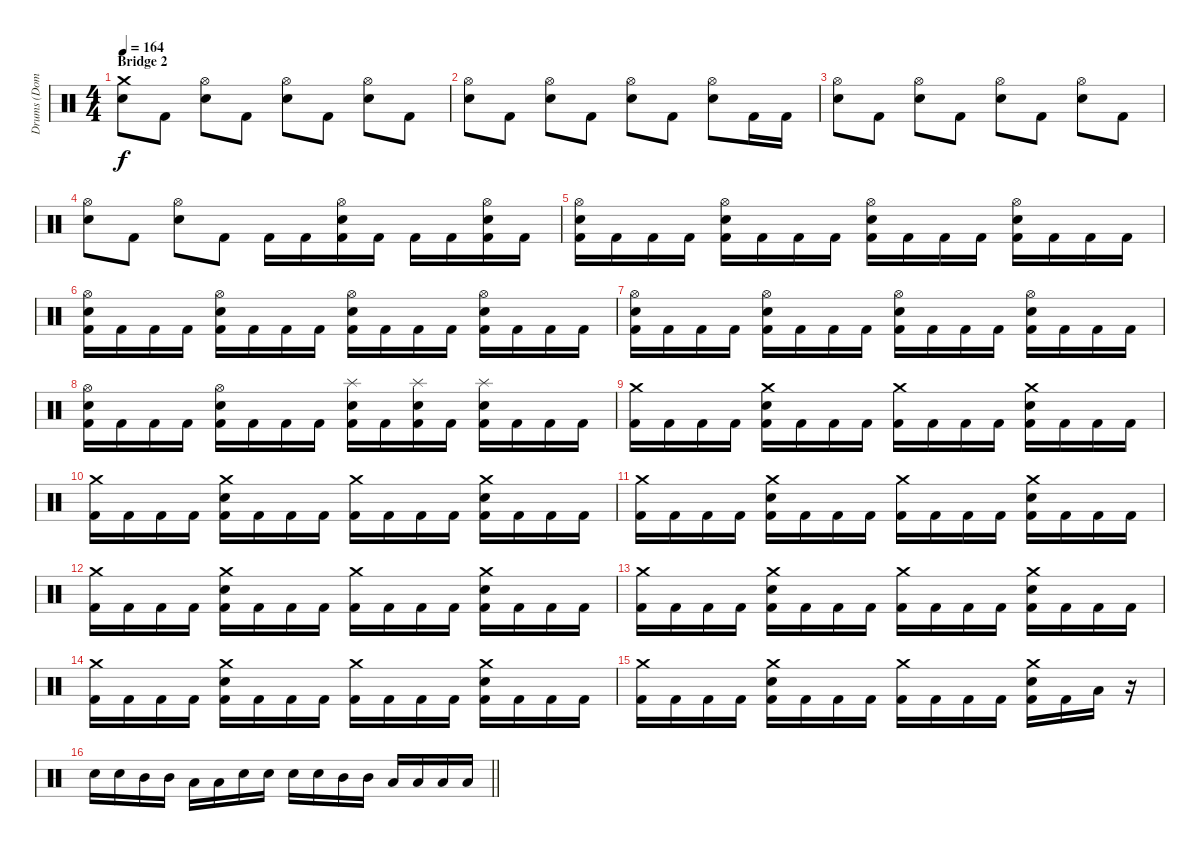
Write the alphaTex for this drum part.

\track ("Drums (Dominik)" "Drums (Dom") {instrument percussion}
\staff {score}
\articulation defaults
\ts (4 4)
\section ("" "Bridge 2")
\tempo 164
\clef neutral
\ks c
("Crash medium (hit)" "Electric Snare (hit)").8{dy f} "Kick (hit) 2".8 ("Hi-Hat (open)" "Electric Snare (hit)").8 "Kick (hit) 2".8 ("Hi-Hat (open)" "Electric Snare (hit)").8 "Kick (hit) 2".8 ("Hi-Hat (open)" "Electric Snare (hit)").8 "Kick (hit) 2".8 |
("Hi-Hat (open)" "Electric Snare (hit)").8 "Kick (hit) 2".8 ("Hi-Hat (open)" "Electric Snare (hit)").8 "Kick (hit) 2".8 ("Hi-Hat (open)" "Electric Snare (hit)").8 "Kick (hit) 2".8 ("Hi-Hat (open)" "Electric Snare (hit)").8 "Kick (hit) 2".16 "Kick (hit) 2".16 |
("Hi-Hat (open)" "Electric Snare (hit)").8 "Kick (hit) 2".8 ("Hi-Hat (open)" "Electric Snare (hit)").8 "Kick (hit) 2".8 ("Hi-Hat (open)" "Electric Snare (hit)").8 "Kick (hit) 2".8 ("Hi-Hat (open)" "Electric Snare (hit)").8 "Kick (hit) 2".8 |
("Hi-Hat (open)" "Electric Snare (hit)").8 "Kick (hit) 2".8 ("Hi-Hat (open)" "Electric Snare (hit)").8 "Kick (hit) 2".8 "Kick (hit) 2".16 "Kick (hit) 2".16 ("Hi-Hat (open)" "Electric Snare (hit)" "Kick (hit) 2").16 "Kick (hit) 2".16 "Kick (hit) 2".16 "Kick (hit) 2".16 ("Hi-Hat (open)" "Electric Snare (hit)" "Kick (hit) 2").16 "Kick (hit) 2".16 |
("Hi-Hat (open)" "Electric Snare (hit)" "Kick (hit) 2").16 "Kick (hit) 2".16 "Kick (hit) 2".16 "Kick (hit) 2".16 ("Hi-Hat (open)" "Electric Snare (hit)" "Kick (hit) 2").16 "Kick (hit) 2".16 "Kick (hit) 2".16 "Kick (hit) 2".16 ("Hi-Hat (open)" "Electric Snare (hit)" "Kick (hit) 2").16 "Kick (hit) 2".16 "Kick (hit) 2".16 "Kick (hit) 2".16 ("Hi-Hat (open)" "Electric Snare (hit)" "Kick (hit) 2").16 "Kick (hit) 2".16 "Kick (hit) 2".16 "Kick (hit) 2".16 |
("Hi-Hat (open)" "Electric Snare (hit)" "Kick (hit) 2").16 "Kick (hit) 2".16 "Kick (hit) 2".16 "Kick (hit) 2".16 ("Hi-Hat (open)" "Electric Snare (hit)" "Kick (hit) 2").16 "Kick (hit) 2".16 "Kick (hit) 2".16 "Kick (hit) 2".16 ("Hi-Hat (open)" "Electric Snare (hit)" "Kick (hit) 2").16 "Kick (hit) 2".16 "Kick (hit) 2".16 "Kick (hit) 2".16 ("Hi-Hat (open)" "Electric Snare (hit)" "Kick (hit) 2").16 "Kick (hit) 2".16 "Kick (hit) 2".16 "Kick (hit) 2".16 |
("Hi-Hat (open)" "Electric Snare (hit)" "Kick (hit) 2").16 "Kick (hit) 2".16 "Kick (hit) 2".16 "Kick (hit) 2".16 ("Hi-Hat (open)" "Electric Snare (hit)" "Kick (hit) 2").16 "Kick (hit) 2".16 "Kick (hit) 2".16 "Kick (hit) 2".16 ("Hi-Hat (open)" "Electric Snare (hit)" "Kick (hit) 2").16 "Kick (hit) 2".16 "Kick (hit) 2".16 "Kick (hit) 2".16 ("Hi-Hat (open)" "Electric Snare (hit)" "Kick (hit) 2").16 "Kick (hit) 2".16 "Kick (hit) 2".16 "Kick (hit) 2".16 |
("Hi-Hat (open)" "Electric Snare (hit)" "Kick (hit) 2").16 "Kick (hit) 2".16 "Kick (hit) 2".16 "Kick (hit) 2".16 ("Hi-Hat (open)" "Electric Snare (hit)" "Kick (hit) 2").16 "Kick (hit) 2".16 "Kick (hit) 2".16 "Kick (hit) 2".16 ("Splash (hit)" "Electric Snare (hit)" "Kick (hit) 2").16 "Kick (hit) 2".16 ("Splash (hit)" "Electric Snare (hit)" "Kick (hit) 2").16 "Kick (hit) 2".16 ("Splash (hit)" "Electric Snare (hit)" "Kick (hit) 2").16 "Kick (hit) 2".16 "Kick (hit) 2".16 "Kick (hit) 2".16 |
("Crash medium (hit)" "Kick (hit) 2").16 "Kick (hit) 2".16 "Kick (hit) 2".16 "Kick (hit) 2".16 ("Crash medium (hit)" "Electric Snare (hit)" "Kick (hit) 2").16 "Kick (hit) 2".16 "Kick (hit) 2".16 "Kick (hit) 2".16 ("Crash medium (hit)" "Kick (hit) 2").16 "Kick (hit) 2".16 "Kick (hit) 2".16 "Kick (hit) 2".16 ("Crash medium (hit)" "Electric Snare (hit)" "Kick (hit) 2").16 "Kick (hit) 2".16 "Kick (hit) 2".16 "Kick (hit) 2".16 |
("Crash medium (hit)" "Kick (hit) 2").16 "Kick (hit) 2".16 "Kick (hit) 2".16 "Kick (hit) 2".16 ("Crash medium (hit)" "Electric Snare (hit)" "Kick (hit) 2").16 "Kick (hit) 2".16 "Kick (hit) 2".16 "Kick (hit) 2".16 ("Crash medium (hit)" "Kick (hit) 2").16 "Kick (hit) 2".16 "Kick (hit) 2".16 "Kick (hit) 2".16 ("Crash medium (hit)" "Electric Snare (hit)" "Kick (hit) 2").16 "Kick (hit) 2".16 "Kick (hit) 2".16 "Kick (hit) 2".16 |
("Crash medium (hit)" "Kick (hit) 2").16 "Kick (hit) 2".16 "Kick (hit) 2".16 "Kick (hit) 2".16 ("Crash medium (hit)" "Electric Snare (hit)" "Kick (hit) 2").16 "Kick (hit) 2".16 "Kick (hit) 2".16 "Kick (hit) 2".16 ("Crash medium (hit)" "Kick (hit) 2").16 "Kick (hit) 2".16 "Kick (hit) 2".16 "Kick (hit) 2".16 ("Crash medium (hit)" "Electric Snare (hit)" "Kick (hit) 2").16 "Kick (hit) 2".16 "Kick (hit) 2".16 "Kick (hit) 2".16 |
("Crash medium (hit)" "Kick (hit) 2").16 "Kick (hit) 2".16 "Kick (hit) 2".16 "Kick (hit) 2".16 ("Crash medium (hit)" "Electric Snare (hit)" "Kick (hit) 2").16 "Kick (hit) 2".16 "Kick (hit) 2".16 "Kick (hit) 2".16 ("Crash medium (hit)" "Kick (hit) 2").16 "Kick (hit) 2".16 "Kick (hit) 2".16 "Kick (hit) 2".16 ("Crash medium (hit)" "Electric Snare (hit)" "Kick (hit) 2").16 "Kick (hit) 2".16 "Kick (hit) 2".16 "Kick (hit) 2".16 |
("Crash medium (hit)" "Kick (hit) 2").16 "Kick (hit) 2".16 "Kick (hit) 2".16 "Kick (hit) 2".16 ("Crash medium (hit)" "Electric Snare (hit)" "Kick (hit) 2").16 "Kick (hit) 2".16 "Kick (hit) 2".16 "Kick (hit) 2".16 ("Crash medium (hit)" "Kick (hit) 2").16 "Kick (hit) 2".16 "Kick (hit) 2".16 "Kick (hit) 2".16 ("Crash medium (hit)" "Electric Snare (hit)" "Kick (hit) 2").16 "Kick (hit) 2".16 "Kick (hit) 2".16 "Kick (hit) 2".16 |
("Crash medium (hit)" "Kick (hit) 2").16 "Kick (hit) 2".16 "Kick (hit) 2".16 "Kick (hit) 2".16 ("Crash medium (hit)" "Electric Snare (hit)" "Kick (hit) 2").16 "Kick (hit) 2".16 "Kick (hit) 2".16 "Kick (hit) 2".16 ("Crash medium (hit)" "Kick (hit) 2").16 "Kick (hit) 2".16 "Kick (hit) 2".16 "Kick (hit) 2".16 ("Crash medium (hit)" "Electric Snare (hit)" "Kick (hit) 2").16 "Kick (hit) 2".16 "Kick (hit) 2".16 "Kick (hit) 2".16 |
("Crash medium (hit)" "Kick (hit) 2").16 "Kick (hit) 2".16 "Kick (hit) 2".16 "Kick (hit) 2".16 ("Crash medium (hit)" "Electric Snare (hit)" "Kick (hit) 2").16 "Kick (hit) 2".16 "Kick (hit) 2".16 "Kick (hit) 2".16 ("Crash medium (hit)" "Kick (hit) 2").16 "Kick (hit) 2".16 "Kick (hit) 2".16 "Kick (hit) 2".16 ("Crash medium (hit)" "Electric Snare (hit)" "Kick (hit) 2").16 "Kick (hit) 2".16 "Low Tom (hit)".16 r.16 |
\barLineRight lightlight "Electric Snare (hit)".16 "Electric Snare (hit)".16 "Mid Tom (hit)".16 "Mid Tom (hit)".16 "Low Tom (hit)".16 "Low Tom (hit)".16 "Electric Snare (hit)".16 "Electric Snare (hit)".16 "Electric Snare (hit)".16 "Electric Snare (hit)".16 "Mid Tom (hit)".16 "Mid Tom (hit)".16 "Low Tom (hit)".16 "Low Tom (hit)".16 "Low Floor Tom (hit)".16 "Low Floor Tom (hit)".16
